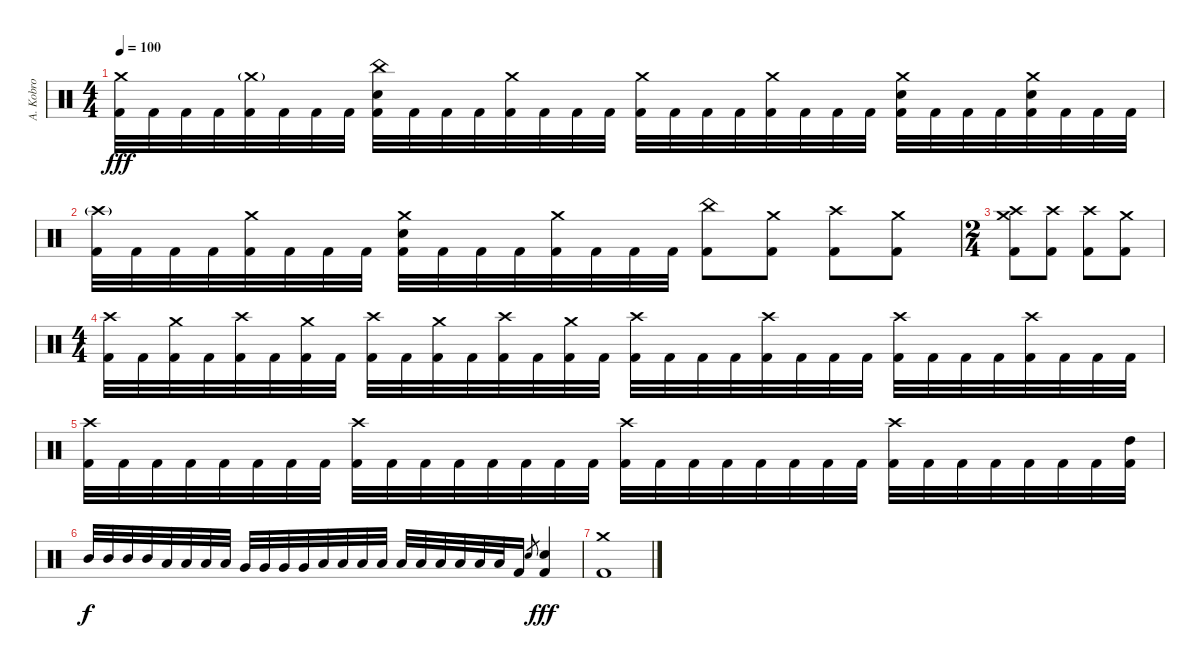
\track ("A. Kobro" "A. Kobro") {instrument percussion}
\staff {score}
\articulation defaults
\ts (4 4)
\tempo 100
\clef neutral
\ks c
("Crash medium (hit)" "Kick (hit) 2").32{dy fff} "Kick (hit) 2".32 "Kick (hit) 2".32 "Kick (hit) 2".32 ("Crash medium (hit)"{g} "Kick (hit) 2").32 "Kick (hit) 2".32 "Kick (hit) 2".32 "Kick (hit) 2".32 ("China (hit)" "Electric Snare (hit)" "Kick (hit) 2").32 "Kick (hit) 2".32 "Kick (hit) 2".32 "Kick (hit) 2".32 ("Crash medium (hit)" "Kick (hit) 2").32 "Kick (hit) 2".32 "Kick (hit) 2".32 "Kick (hit) 2".32 ("Crash medium (hit)" "Kick (hit) 2").32 "Kick (hit) 2".32 "Kick (hit) 2".32 "Kick (hit) 2".32 ("Crash medium (hit)" "Kick (hit) 2").32 "Kick (hit) 2".32 "Kick (hit) 2".32 "Kick (hit) 2".32 ("Crash medium (hit)" "Electric Snare (hit)" "Kick (hit) 2").32 "Kick (hit) 2".32 "Kick (hit) 2".32 "Kick (hit) 2".32 ("Crash medium (hit)" "Electric Snare (hit)" "Kick (hit) 2").32 "Kick (hit) 2".32 "Kick (hit) 2".32 "Kick (hit) 2".32 |
("Crash high (hit)"{g} "Kick (hit) 2").32 "Kick (hit) 2".32 "Kick (hit) 2".32 "Kick (hit) 2".32 ("Crash medium (hit)" "Kick (hit) 2").32 "Kick (hit) 2".32 "Kick (hit) 2".32 "Kick (hit) 2".32 ("Crash medium (hit)" "Electric Snare (hit)" "Kick (hit) 2").32 "Kick (hit) 2".32 "Kick (hit) 2".32 "Kick (hit) 2".32 ("Crash medium (hit)" "Kick (hit) 2").32 "Kick (hit) 2".32 "Kick (hit) 2".32 "Kick (hit) 2".32 ("China (hit)" "Kick (hit) 2").8 ("Crash medium (hit)" "Kick (hit) 2").8 ("Crash high (hit)" "Kick (hit) 2").8 ("Crash medium (hit)" "Kick (hit) 2").8 |
\ts (2 4)
("Crash medium (hit)" "Crash high (hit)" "Kick (hit) 2").8 ("Crash high (hit)" "Kick (hit) 2").8 ("Crash high (hit)" "Kick (hit) 2").8 ("Crash medium (hit)" "Kick (hit) 2").8 |
\ts (4 4)
("Crash high (hit)" "Kick (hit) 2").32 "Kick (hit) 2".32 ("Crash medium (hit)" "Kick (hit) 2").32 "Kick (hit) 2".32 ("Crash high (hit)" "Kick (hit) 2").32 "Kick (hit) 2".32 ("Crash medium (hit)" "Kick (hit) 2").32 "Kick (hit) 2".32 ("Crash high (hit)" "Kick (hit) 2").32 "Kick (hit) 2".32 ("Crash medium (hit)" "Kick (hit) 2").32 "Kick (hit) 2".32 ("Crash high (hit)" "Kick (hit) 2").32 "Kick (hit) 2".32 ("Crash medium (hit)" "Kick (hit) 2").32 "Kick (hit) 2".32 ("Crash high (hit)" "Kick (hit) 2").32 "Kick (hit) 2".32 "Kick (hit) 2".32 "Kick (hit) 2".32 ("Crash high (hit)" "Kick (hit) 2").32 "Kick (hit) 2".32 "Kick (hit) 2".32 "Kick (hit) 2".32 ("Crash high (hit)" "Kick (hit) 2").32 "Kick (hit) 2".32 "Kick (hit) 2".32 "Kick (hit) 2".32 ("Crash high (hit)" "Kick (hit) 2").32 "Kick (hit) 2".32 "Kick (hit) 2".32 "Kick (hit) 2".32 |
("Crash high (hit)" "Kick (hit) 2").32 "Kick (hit) 2".32 "Kick (hit) 2".32 "Kick (hit) 2".32 "Kick (hit) 2".32 "Kick (hit) 2".32 "Kick (hit) 2".32 "Kick (hit) 2".32 ("Crash high (hit)" "Kick (hit) 2").32 "Kick (hit) 2".32 "Kick (hit) 2".32 "Kick (hit) 2".32 "Kick (hit) 2".32 "Kick (hit) 2".32 "Kick (hit) 2".32 "Kick (hit) 2".32 ("Crash high (hit)" "Kick (hit) 2").32 "Kick (hit) 2".32 "Kick (hit) 2".32 "Kick (hit) 2".32 "Kick (hit) 2".32 "Kick (hit) 2".32 "Kick (hit) 2".32 "Kick (hit) 2".32 ("Crash high (hit)" "Kick (hit) 2").32 "Kick (hit) 2".32 "Kick (hit) 2".32 "Kick (hit) 2".32 "Kick (hit) 2".32 "Kick (hit) 2".32 "Kick (hit) 2".32 ("High Tom (hit)" "Kick (hit) 2").32 |
"Mid Tom (hit)".32{dy f} "Mid Tom (hit)".32 "Mid Tom (hit)".32 "Mid Tom (hit)".32 "Low Tom (hit)".32 "Low Tom (hit)".32 "Low Tom (hit)".32 "Low Tom (hit)".32 "Very Low Tom (hit)".32 "Very Low Tom (hit)".32 "Very Low Tom (hit)".32 "Very Low Tom (hit)".32 "Low Floor Tom (hit)".32 "Low Floor Tom (hit)".32 "Low Floor Tom (hit)".32 "Low Floor Tom (hit)".32 "Low Floor Tom (hit)".32 "Low Floor Tom (hit)".32 "Low Floor Tom (hit)".32 "Low Floor Tom (hit)".32 "Low Floor Tom (hit)".32 "Low Floor Tom (hit)".32 "Kick (hit) 2".16 "Electric Snare (hit)".8{gr} ("Electric Snare (hit)" "Kick (hit) 2").4{dy fff} |
("Crash medium (hit)" "Kick (hit) 2").1
